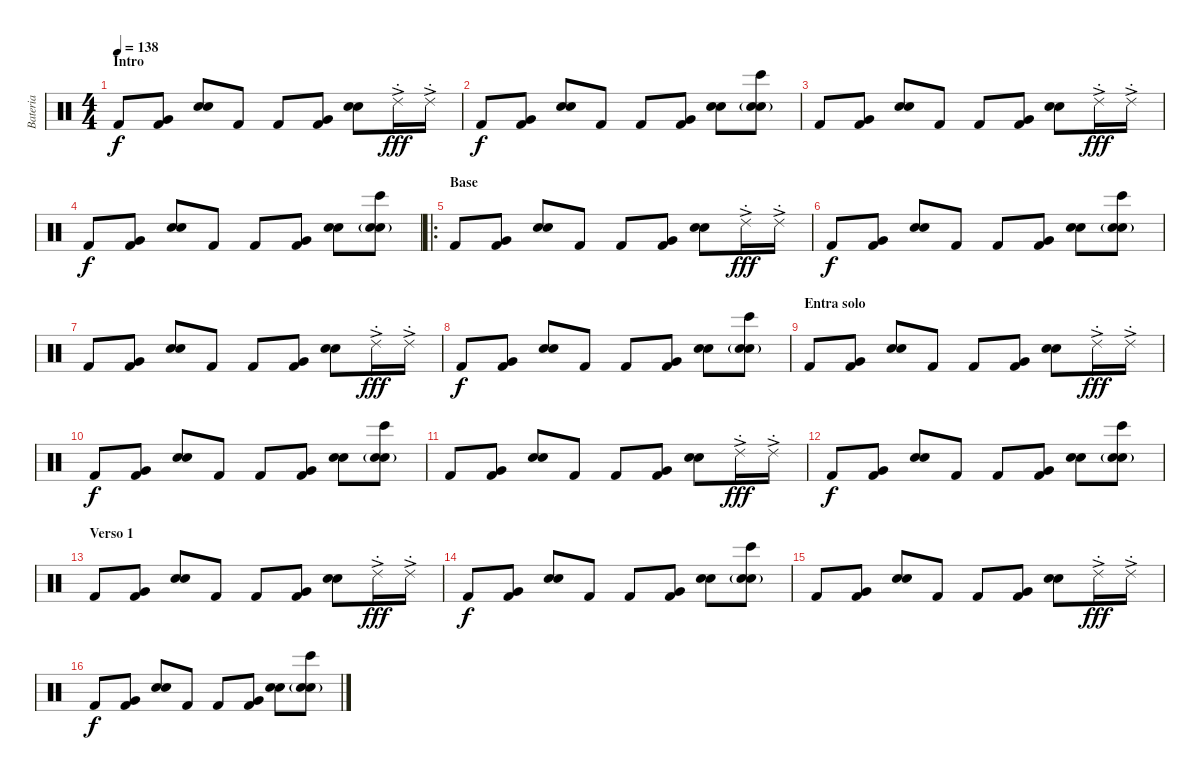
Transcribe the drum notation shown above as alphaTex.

\track ("Bateria" "Bateria") {instrument percussion}
\staff {score}
\articulation defaults
\ts (4 4)
\section ("" "Intro")
\tempo 138
\clef neutral
\ks c "Kick (hit) 2".8{dy f}
("Very Low Tom (hit)" "Kick (hit) 2").8 ("Snare (hit) 2" "Electric Snare (hit)").8 "Kick (hit) 2".8 "Kick (hit) 2".8 ("Very Low Tom (hit)" "Kick (hit) 2").8 ("Snare (hit) 2" "Electric Snare (hit)").8 "Ride (choke) 2"{ac}.16{dy fff} "Ride (choke) 2"{ac}.16 |
"Kick (hit) 2".8{dy f} ("Very Low Tom (hit)" "Kick (hit) 2").8 ("Snare (hit) 2" "Electric Snare (hit)").8 "Kick (hit) 2".8 "Kick (hit) 2".8 ("Very Low Tom (hit)" "Kick (hit) 2").8 ("Snare (hit) 2" "Electric Snare (hit)").8 ("Bongo High (hit)" "Hand Clap (hit)" "Snare (hit) 2"{g}).8 |
"Kick (hit) 2".8 ("Very Low Tom (hit)" "Kick (hit) 2").8 ("Snare (hit) 2" "Electric Snare (hit)").8 "Kick (hit) 2".8 "Kick (hit) 2".8 ("Very Low Tom (hit)" "Kick (hit) 2").8 ("Snare (hit) 2" "Electric Snare (hit)").8 "Ride (choke) 2"{ac}.16{dy fff} "Ride (choke) 2"{ac}.16 |
"Kick (hit) 2".8{dy f} ("Very Low Tom (hit)" "Kick (hit) 2").8 ("Snare (hit) 2" "Electric Snare (hit)").8 "Kick (hit) 2".8 "Kick (hit) 2".8 ("Very Low Tom (hit)" "Kick (hit) 2").8 ("Snare (hit) 2" "Electric Snare (hit)").8 ("Bongo High (hit)" "Hand Clap (hit)" "Snare (hit) 2"{g}).8 |
\ro
\section ("" "Base")
"Kick (hit) 2".8 ("Very Low Tom (hit)" "Kick (hit) 2").8 ("Snare (hit) 2" "Electric Snare (hit)").8 "Kick (hit) 2".8 "Kick (hit) 2".8 ("Very Low Tom (hit)" "Kick (hit) 2").8 ("Snare (hit) 2" "Electric Snare (hit)").8 "Ride (choke) 2"{ac}.16{dy fff} "Ride (choke) 2"{ac}.16 |
"Kick (hit) 2".8{dy f} ("Very Low Tom (hit)" "Kick (hit) 2").8 ("Snare (hit) 2" "Electric Snare (hit)").8 "Kick (hit) 2".8 "Kick (hit) 2".8 ("Very Low Tom (hit)" "Kick (hit) 2").8 ("Snare (hit) 2" "Electric Snare (hit)").8 ("Bongo High (hit)" "Hand Clap (hit)" "Snare (hit) 2"{g}).8 |
"Kick (hit) 2".8 ("Very Low Tom (hit)" "Kick (hit) 2").8 ("Snare (hit) 2" "Electric Snare (hit)").8 "Kick (hit) 2".8 "Kick (hit) 2".8 ("Very Low Tom (hit)" "Kick (hit) 2").8 ("Snare (hit) 2" "Electric Snare (hit)").8 "Ride (choke) 2"{ac}.16{dy fff} "Ride (choke) 2"{ac}.16 |
"Kick (hit) 2".8{dy f} ("Very Low Tom (hit)" "Kick (hit) 2").8 ("Snare (hit) 2" "Electric Snare (hit)").8 "Kick (hit) 2".8 "Kick (hit) 2".8 ("Very Low Tom (hit)" "Kick (hit) 2").8 ("Snare (hit) 2" "Electric Snare (hit)").8 ("Bongo High (hit)" "Hand Clap (hit)" "Snare (hit) 2"{g}).8 |
\section ("" "Entra solo")
"Kick (hit) 2".8 ("Very Low Tom (hit)" "Kick (hit) 2").8 ("Snare (hit) 2" "Electric Snare (hit)").8 "Kick (hit) 2".8 "Kick (hit) 2".8 ("Very Low Tom (hit)" "Kick (hit) 2").8 ("Snare (hit) 2" "Electric Snare (hit)").8 "Ride (choke) 2"{ac}.16{dy fff} "Ride (choke) 2"{ac}.16 |
"Kick (hit) 2".8{dy f} ("Very Low Tom (hit)" "Kick (hit) 2").8 ("Snare (hit) 2" "Electric Snare (hit)").8 "Kick (hit) 2".8 "Kick (hit) 2".8 ("Very Low Tom (hit)" "Kick (hit) 2").8 ("Snare (hit) 2" "Electric Snare (hit)").8 ("Bongo High (hit)" "Hand Clap (hit)" "Snare (hit) 2"{g}).8 |
"Kick (hit) 2".8 ("Very Low Tom (hit)" "Kick (hit) 2").8 ("Snare (hit) 2" "Electric Snare (hit)").8 "Kick (hit) 2".8 "Kick (hit) 2".8 ("Very Low Tom (hit)" "Kick (hit) 2").8 ("Snare (hit) 2" "Electric Snare (hit)").8 "Ride (choke) 2"{ac}.16{dy fff} "Ride (choke) 2"{ac}.16 |
"Kick (hit) 2".8{dy f} ("Very Low Tom (hit)" "Kick (hit) 2").8 ("Snare (hit) 2" "Electric Snare (hit)").8 "Kick (hit) 2".8 "Kick (hit) 2".8 ("Very Low Tom (hit)" "Kick (hit) 2").8 ("Snare (hit) 2" "Electric Snare (hit)").8 ("Bongo High (hit)" "Hand Clap (hit)" "Snare (hit) 2"{g}).8 |
\section ("" "Verso 1")
"Kick (hit) 2".8 ("Very Low Tom (hit)" "Kick (hit) 2").8 ("Snare (hit) 2" "Electric Snare (hit)").8 "Kick (hit) 2".8 "Kick (hit) 2".8 ("Very Low Tom (hit)" "Kick (hit) 2").8 ("Snare (hit) 2" "Electric Snare (hit)").8 "Ride (choke) 2"{ac}.16{dy fff} "Ride (choke) 2"{ac}.16 |
"Kick (hit) 2".8{dy f} ("Very Low Tom (hit)" "Kick (hit) 2").8 ("Snare (hit) 2" "Electric Snare (hit)").8 "Kick (hit) 2".8 "Kick (hit) 2".8 ("Very Low Tom (hit)" "Kick (hit) 2").8 ("Snare (hit) 2" "Electric Snare (hit)").8 ("Bongo High (hit)" "Hand Clap (hit)" "Snare (hit) 2"{g}).8 |
"Kick (hit) 2".8 ("Very Low Tom (hit)" "Kick (hit) 2").8 ("Snare (hit) 2" "Electric Snare (hit)").8 "Kick (hit) 2".8 "Kick (hit) 2".8 ("Very Low Tom (hit)" "Kick (hit) 2").8 ("Snare (hit) 2" "Electric Snare (hit)").8 "Ride (choke) 2"{ac}.16{dy fff} "Ride (choke) 2"{ac}.16 |
"Kick (hit) 2".8{dy f} ("Very Low Tom (hit)" "Kick (hit) 2").8 ("Snare (hit) 2" "Electric Snare (hit)").8 "Kick (hit) 2".8 "Kick (hit) 2".8 ("Very Low Tom (hit)" "Kick (hit) 2").8 ("Snare (hit) 2" "Electric Snare (hit)").8 ("Bongo High (hit)" "Hand Clap (hit)" "Snare (hit) 2"{g}).8
